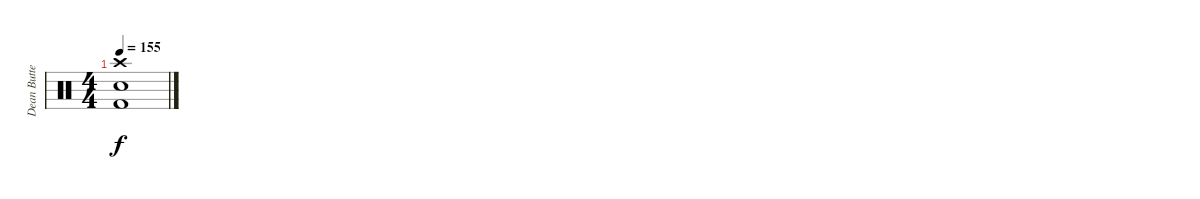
\track ("Dean Butterworth [Drums]" "Dean Butte") {instrument percussion}
\staff {score}
\articulation defaults
\ts (4 4)
\tempo 155
\clef neutral
\ks c
("Crash high (hit)" "Electric Snare (hit)" "Kick (hit) 2").1{dy f}
